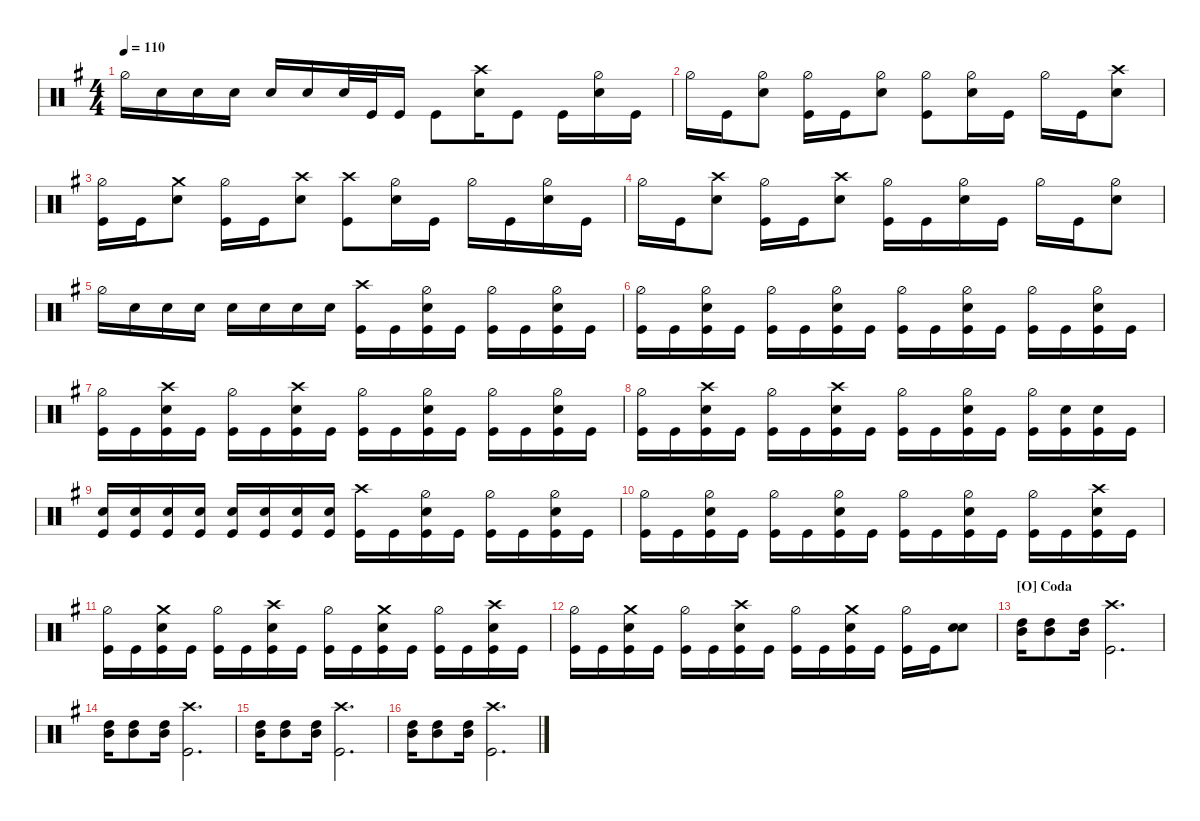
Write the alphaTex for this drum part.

\defaultSystemsLayout 4
\hideDynamics
\bracketExtendMode nobrackets
\track ("Drums" " ") {instrument percussion}
\staff
\articulation defaults
\ts (4 4)
\tempo 110
\clef neutral
\ks eminor "Hi-Hat (half)"{acc forcenatural}.16{dy f} "Snare (hit) 2"{acc forcenatural}.16 "Snare (hit) 2"{acc forcenatural}.16 "Snare (hit) 2"{acc forcenatural}.16 "Snare (hit) 2"{acc forcenatural}.16 "Snare (hit) 2"{acc forcenatural}.16 "Snare (hit) 2"{acc forcenatural}.32 "Kick (hit)"{acc forcenatural}.32 "Kick (hit)"{acc forcenatural}.16 "Kick (hit)"{acc forcenatural}.8
("Crash high (hit)"{acc forcenatural} "Snare (hit) 2"{acc forcenatural}).16 "Kick (hit)"{acc forcenatural}.8 "Kick (hit)"{acc forcenatural}.16 ("Snare (hit) 2"{acc forcenatural} "Hi-Hat (half)"{acc forcenatural}).16 "Kick (hit)"{acc forcenatural}.16 |
"Hi-Hat (half)"{acc forcenatural}.16{dy mf} "Kick (hit)"{acc forcenatural}.16 ("Snare (hit) 2"{acc forcenatural} "Hi-Hat (half)"{acc forcenatural}).8 ("Kick (hit)"{acc forcenatural} "Hi-Hat (half)"{acc forcenatural}).16 "Kick (hit)"{acc forcenatural}.16 ("Snare (hit) 2"{acc forcenatural} "Hi-Hat (half)"{acc forcenatural}).8 ("Kick (hit)"{acc forcenatural} "Hi-Hat (half)"{acc forcenatural}).8 ("Snare (hit) 2"{acc forcenatural} "Hi-Hat (half)"{acc forcenatural}).16 "Kick (hit)"{acc forcenatural}.16 "Hi-Hat (half)"{acc forcenatural}.16 "Kick (hit)"{acc forcenatural}.16 ("Snare (hit) 2"{acc forcenatural} "Crash high (hit)"{acc forcenatural}).8 |
("Hi-Hat (half)"{acc forcenatural} "Kick (hit)"{acc forcenatural}).16{dy f} "Kick (hit)"{acc forcenatural}.16 ("Snare (hit) 2"{acc forcenatural} "Crash medium (hit)"{acc forcenatural}).8 ("Hi-Hat (half)"{acc forcenatural} "Kick (hit)"{acc forcenatural}).16 "Kick (hit)"{acc forcenatural}.16 ("Snare (hit) 2"{acc forcenatural} "Crash high (hit)"{acc forcenatural}).8 ("Kick (hit)"{acc forcenatural} "Crash high (hit)"{acc forcenatural}).8 ("Snare (hit) 2"{acc forcenatural} "Hi-Hat (half)"{acc forcenatural}).16{dy mf} "Kick (hit)"{acc forcenatural}.16 "Hi-Hat (half)"{acc forcenatural}.16 "Kick (hit)"{acc forcenatural}.16 ("Snare (hit) 2"{acc forcenatural} "Hi-Hat (half)"{acc forcenatural}).16 "Kick (hit)"{acc forcenatural}.16 |
"Hi-Hat (half)"{acc forcenatural}.16 "Kick (hit)"{acc forcenatural}.16 ("Snare (hit) 2"{acc forcenatural} "Crash high (hit)"{acc forcenatural}).8 ("Kick (hit)"{acc forcenatural} "Hi-Hat (half)"{acc forcenatural}).16 "Kick (hit)"{acc forcenatural}.16 ("Snare (hit) 2"{acc forcenatural} "Crash high (hit)"{acc forcenatural}).8 ("Kick (hit)"{acc forcenatural} "Hi-Hat (half)"{acc forcenatural}).16 "Kick (hit)"{acc forcenatural}.16 ("Snare (hit) 2"{acc forcenatural} "Hi-Hat (half)"{acc forcenatural}).16 "Kick (hit)"{acc forcenatural}.16 "Hi-Hat (half)"{acc forcenatural}.16 "Kick (hit)"{acc forcenatural}.16 ("Snare (hit) 2"{acc forcenatural} "Hi-Hat (half)"{acc forcenatural}).8 |
"Hi-Hat (half)"{acc forcenatural}.16 "Snare (hit) 2"{acc forcenatural}.16 "Snare (hit) 2"{acc forcenatural}.16 "Snare (hit) 2"{acc forcenatural}.16 "Snare (hit) 2"{acc forcenatural}.16 "Snare (hit) 2"{acc forcenatural}.16 "Snare (hit) 2"{acc forcenatural}.16 "Snare (hit) 2"{acc forcenatural}.16 ("Kick (hit)"{acc forcenatural} "Crash high (hit)"{acc forcenatural}).16 "Kick (hit)"{acc forcenatural}.16 ("Hi-Hat (half)"{acc forcenatural} "Snare (hit) 2"{acc forcenatural} "Kick (hit)"{acc forcenatural}).16 "Kick (hit)"{acc forcenatural}.16 ("Hi-Hat (half)"{acc forcenatural} "Kick (hit)"{acc forcenatural}).16 "Kick (hit)"{acc forcenatural}.16 ("Hi-Hat (half)"{acc forcenatural} "Snare (hit) 2"{acc forcenatural} "Kick (hit)"{acc forcenatural}).16 "Kick (hit)"{acc forcenatural}.16 |
("Hi-Hat (half)"{acc forcenatural} "Kick (hit)"{acc forcenatural}).16 "Kick (hit)"{acc forcenatural}.16 ("Hi-Hat (half)"{acc forcenatural} "Snare (hit) 2"{acc forcenatural} "Kick (hit)"{acc forcenatural}).16 "Kick (hit)"{acc forcenatural}.16 ("Hi-Hat (half)"{acc forcenatural} "Kick (hit)"{acc forcenatural}).16 "Kick (hit)"{acc forcenatural}.16 ("Hi-Hat (half)"{acc forcenatural} "Snare (hit) 2"{acc forcenatural} "Kick (hit)"{acc forcenatural}).16 "Kick (hit)"{acc forcenatural}.16 ("Hi-Hat (half)"{acc forcenatural} "Kick (hit)"{acc forcenatural}).16 "Kick (hit)"{acc forcenatural}.16 ("Hi-Hat (half)"{acc forcenatural} "Snare (hit) 2"{acc forcenatural} "Kick (hit)"{acc forcenatural}).16 "Kick (hit)"{acc forcenatural}.16 ("Hi-Hat (half)"{acc forcenatural} "Kick (hit)"{acc forcenatural}).16 "Kick (hit)"{acc forcenatural}.16 ("Hi-Hat (half)"{acc forcenatural} "Snare (hit) 2"{acc forcenatural} "Kick (hit)"{acc forcenatural}).16 "Kick (hit)"{acc forcenatural}.16 |
("Hi-Hat (half)"{acc forcenatural} "Kick (hit)"{acc forcenatural}).16 "Kick (hit)"{acc forcenatural}.16 ("Snare (hit) 2"{acc forcenatural} "Kick (hit)"{acc forcenatural} "Crash high (hit)"{acc forcenatural}).16 "Kick (hit)"{acc forcenatural}.16 ("Hi-Hat (half)"{acc forcenatural} "Kick (hit)"{acc forcenatural}).16 "Kick (hit)"{acc forcenatural}.16 ("Snare (hit) 2"{acc forcenatural} "Kick (hit)"{acc forcenatural} "Crash high (hit)"{acc forcenatural}).16 "Kick (hit)"{acc forcenatural}.16 ("Hi-Hat (half)"{acc forcenatural} "Kick (hit)"{acc forcenatural}).16 "Kick (hit)"{acc forcenatural}.16 ("Hi-Hat (half)"{acc forcenatural} "Snare (hit) 2"{acc forcenatural} "Kick (hit)"{acc forcenatural}).16 "Kick (hit)"{acc forcenatural}.16 ("Hi-Hat (half)"{acc forcenatural} "Kick (hit)"{acc forcenatural}).16 "Kick (hit)"{acc forcenatural}.16 ("Hi-Hat (half)"{acc forcenatural} "Snare (hit) 2"{acc forcenatural} "Kick (hit)"{acc forcenatural}).16 "Kick (hit)"{acc forcenatural}.16 |
("Hi-Hat (half)"{acc forcenatural} "Kick (hit)"{acc forcenatural}).16 "Kick (hit)"{acc forcenatural}.16 ("Snare (hit) 2"{acc forcenatural} "Kick (hit)"{acc forcenatural} "Crash high (hit)"{acc forcenatural}).16 "Kick (hit)"{acc forcenatural}.16 ("Hi-Hat (half)"{acc forcenatural} "Kick (hit)"{acc forcenatural}).16 "Kick (hit)"{acc forcenatural}.16 ("Snare (hit) 2"{acc forcenatural} "Kick (hit)"{acc forcenatural} "Crash high (hit)"{acc forcenatural}).16 "Kick (hit)"{acc forcenatural}.16 ("Hi-Hat (half)"{acc forcenatural} "Kick (hit)"{acc forcenatural}).16 "Kick (hit)"{acc forcenatural}.16 ("Hi-Hat (half)"{acc forcenatural} "Snare (hit) 2"{acc forcenatural} "Kick (hit)"{acc forcenatural}).16 "Kick (hit)"{acc forcenatural}.16 ("Hi-Hat (half)"{acc forcenatural} "Kick (hit)"{acc forcenatural}).16 ("Kick (hit)"{acc forcenatural} "Snare (hit) 2"{acc forcenatural}).16 ("Kick (hit)"{acc forcenatural} "Snare (hit) 2"{acc forcenatural}).16 "Kick (hit)"{acc forcenatural}.16 |
("Kick (hit)"{acc forcenatural} "Snare (hit) 2"{acc forcenatural}).16 ("Kick (hit)"{acc forcenatural} "Snare (hit) 2"{acc forcenatural}).16 ("Kick (hit)"{acc forcenatural} "Snare (hit) 2"{acc forcenatural}).16 ("Kick (hit)"{acc forcenatural} "Snare (hit) 2"{acc forcenatural}).16 ("Kick (hit)"{acc forcenatural} "Snare (hit) 2"{acc forcenatural}).16 ("Kick (hit)"{acc forcenatural} "Snare (hit) 2"{acc forcenatural}).16 ("Kick (hit)"{acc forcenatural} "Snare (hit) 2"{acc forcenatural}).16 ("Kick (hit)"{acc forcenatural} "Snare (hit) 2"{acc forcenatural}).16 ("Kick (hit)"{acc forcenatural} "Crash high (hit)"{acc forcenatural}).16 "Kick (hit)"{acc forcenatural}.16 ("Hi-Hat (half)"{acc forcenatural} "Snare (hit) 2"{acc forcenatural} "Kick (hit)"{acc forcenatural}).16 "Kick (hit)"{acc forcenatural}.16 ("Hi-Hat (half)"{acc forcenatural} "Kick (hit)"{acc forcenatural}).16 "Kick (hit)"{acc forcenatural}.16 ("Hi-Hat (half)"{acc forcenatural} "Snare (hit) 2"{acc forcenatural} "Kick (hit)"{acc forcenatural}).16 "Kick (hit)"{acc forcenatural}.16 |
("Hi-Hat (half)"{acc forcenatural} "Kick (hit)"{acc forcenatural}).16 "Kick (hit)"{acc forcenatural}.16 ("Hi-Hat (half)"{acc forcenatural} "Snare (hit) 2"{acc forcenatural} "Kick (hit)"{acc forcenatural}).16 "Kick (hit)"{acc forcenatural}.16 ("Hi-Hat (half)"{acc forcenatural} "Kick (hit)"{acc forcenatural}).16 "Kick (hit)"{acc forcenatural}.16 ("Hi-Hat (half)"{acc forcenatural} "Snare (hit) 2"{acc forcenatural} "Kick (hit)"{acc forcenatural}).16 "Kick (hit)"{acc forcenatural}.16 ("Hi-Hat (half)"{acc forcenatural} "Kick (hit)"{acc forcenatural}).16 "Kick (hit)"{acc forcenatural}.16 ("Hi-Hat (half)"{acc forcenatural} "Snare (hit) 2"{acc forcenatural} "Kick (hit)"{acc forcenatural}).16 "Kick (hit)"{acc forcenatural}.16 ("Hi-Hat (half)"{acc forcenatural} "Kick (hit)"{acc forcenatural}).16 "Kick (hit)"{acc forcenatural}.16 ("Snare (hit) 2"{acc forcenatural} "Kick (hit)"{acc forcenatural} "Crash high (hit)"{acc forcenatural}).16 "Kick (hit)"{acc forcenatural}.16 |
("Hi-Hat (half)"{acc forcenatural} "Kick (hit)"{acc forcenatural}).16 "Kick (hit)"{acc forcenatural}.16 ("Snare (hit) 2"{acc forcenatural} "Kick (hit)"{acc forcenatural} "Crash medium (hit)"{acc forcenatural}).16 "Kick (hit)"{acc forcenatural}.16 ("Hi-Hat (half)"{acc forcenatural} "Kick (hit)"{acc forcenatural}).16 "Kick (hit)"{acc forcenatural}.16 ("Snare (hit) 2"{acc forcenatural} "Kick (hit)"{acc forcenatural} "Crash high (hit)"{acc forcenatural}).16 "Kick (hit)"{acc forcenatural}.16 ("Hi-Hat (half)"{acc forcenatural} "Kick (hit)"{acc forcenatural}).16 "Kick (hit)"{acc forcenatural}.16 ("Snare (hit) 2"{acc forcenatural} "Kick (hit)"{acc forcenatural} "Crash medium (hit)"{acc forcenatural}).16 "Kick (hit)"{acc forcenatural}.16 ("Hi-Hat (half)"{acc forcenatural} "Kick (hit)"{acc forcenatural}).16 "Kick (hit)"{acc forcenatural}.16 ("Snare (hit) 2"{acc forcenatural} "Kick (hit)"{acc forcenatural} "Crash high (hit)"{acc forcenatural}).16 "Kick (hit)"{acc forcenatural}.16 |
("Hi-Hat (half)"{acc forcenatural} "Kick (hit)"{acc forcenatural}).16 "Kick (hit)"{acc forcenatural}.16 ("Snare (hit) 2"{acc forcenatural} "Kick (hit)"{acc forcenatural} "Crash medium (hit)"{acc forcenatural}).16 "Kick (hit)"{acc forcenatural}.16 ("Hi-Hat (half)"{acc forcenatural} "Kick (hit)"{acc forcenatural}).16 "Kick (hit)"{acc forcenatural}.16 ("Snare (hit) 2"{acc forcenatural} "Kick (hit)"{acc forcenatural} "Crash high (hit)"{acc forcenatural}).16 "Kick (hit)"{acc forcenatural}.16 ("Hi-Hat (half)"{acc forcenatural} "Kick (hit)"{acc forcenatural}).16 "Kick (hit)"{acc forcenatural}.16 ("Snare (hit) 2"{acc forcenatural} "Kick (hit)"{acc forcenatural} "Crash medium (hit)"{acc forcenatural}).16 "Kick (hit)"{acc forcenatural}.16 ("Hi-Hat (half)"{acc forcenatural} "Kick (hit)"{acc forcenatural}).16 "Kick (hit)"{acc forcenatural}.16 ("Snare (hit) 2"{acc forcenatural} "Snare (hit) 2"{acc forcenatural}).8 |
\section ("O" "Coda")
("High Tom (hit)"{acc forcenatural} "Mid Tom (hit)"{acc forcenatural}).16{dy ff} ("High Tom (hit)"{acc forcenatural} "Mid Tom (hit)"{acc forcenatural}).8 ("High Tom (hit)"{acc forcenatural} "Mid Tom (hit)"{acc forcenatural}).16 ("Kick (hit)"{acc forcenatural} "Crash high (hit)"{acc forcenatural}).2{d dy f} |
("High Tom (hit)"{acc forcenatural} "Mid Tom (hit)"{acc forcenatural}).16{dy ff} ("High Tom (hit)"{acc forcenatural} "Mid Tom (hit)"{acc forcenatural}).8 ("High Tom (hit)"{acc forcenatural} "Mid Tom (hit)"{acc forcenatural}).16 ("Kick (hit)"{acc forcenatural} "Crash high (hit)"{acc forcenatural}).2{d dy f} |
("High Tom (hit)"{acc forcenatural} "Mid Tom (hit)"{acc forcenatural}).16{dy ff} ("High Tom (hit)"{acc forcenatural} "Mid Tom (hit)"{acc forcenatural}).8 ("High Tom (hit)"{acc forcenatural} "Mid Tom (hit)"{acc forcenatural}).16 ("Kick (hit)"{acc forcenatural} "Crash high (hit)"{acc forcenatural}).2{d dy f} |
("High Tom (hit)"{acc forcenatural} "Mid Tom (hit)"{acc forcenatural}).16{dy ff} ("High Tom (hit)"{acc forcenatural} "Mid Tom (hit)"{acc forcenatural}).8 ("High Tom (hit)"{acc forcenatural} "Mid Tom (hit)"{acc forcenatural}).16 ("Kick (hit)"{acc forcenatural} "Crash high (hit)"{acc forcenatural}).2{d dy f}
